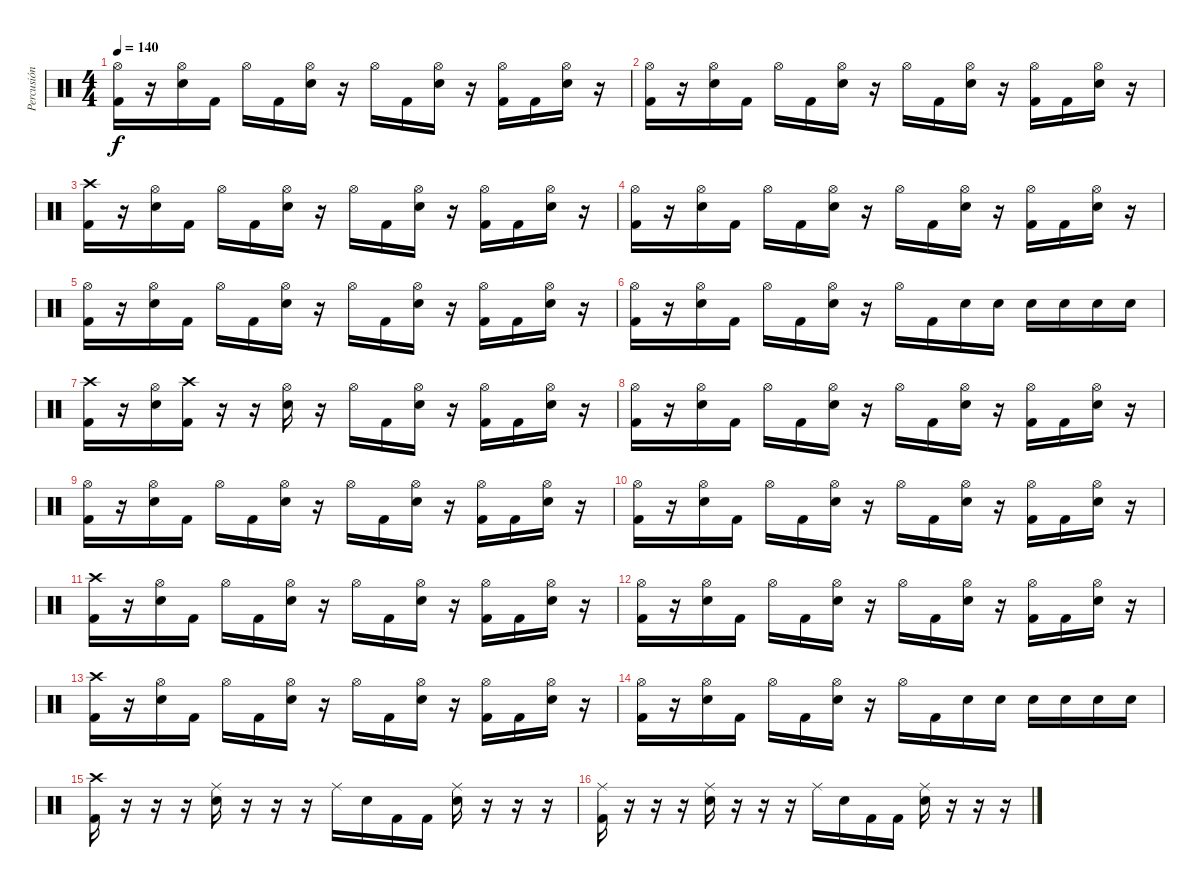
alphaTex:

\track ("Percusión" "Percusión") {instrument percussion}
\staff {score}
\articulation defaults
\ts (4 4)
\tempo 140
\clef neutral
\ks c
("Hi-Hat (open)" "Kick (hit) 2").16{dy f} r.16 ("Hi-Hat (open)" "Snare (hit) 2").16 "Kick (hit) 2".16 "Hi-Hat (open)".16 "Kick (hit) 2".16 ("Hi-Hat (open)" "Snare (hit) 2").16 r.16 "Hi-Hat (open)".16 "Kick (hit) 2".16 ("Hi-Hat (open)" "Snare (hit) 2").16 r.16 ("Hi-Hat (open)" "Kick (hit) 2").16 "Kick (hit) 2".16 ("Hi-Hat (open)" "Snare (hit) 2").16 r.16 |
("Hi-Hat (open)" "Kick (hit) 2").16 r.16 ("Hi-Hat (open)" "Snare (hit) 2").16 "Kick (hit) 2".16 "Hi-Hat (open)".16 "Kick (hit) 2".16 ("Hi-Hat (open)" "Snare (hit) 2").16 r.16 "Hi-Hat (open)".16 "Kick (hit) 2".16 ("Hi-Hat (open)" "Snare (hit) 2").16 r.16 ("Hi-Hat (open)" "Kick (hit) 2").16 "Kick (hit) 2".16 ("Hi-Hat (open)" "Snare (hit) 2").16 r.16 |
("Crash high (hit)" "Kick (hit) 2").16 r.16 ("Hi-Hat (open)" "Snare (hit) 2").16 "Kick (hit) 2".16 "Hi-Hat (open)".16 "Kick (hit) 2".16 ("Hi-Hat (open)" "Snare (hit) 2").16 r.16 "Hi-Hat (open)".16 "Kick (hit) 2".16 ("Hi-Hat (open)" "Snare (hit) 2").16 r.16 ("Hi-Hat (open)" "Kick (hit) 2").16 "Kick (hit) 2".16 ("Hi-Hat (open)" "Snare (hit) 2").16 r.16 |
("Hi-Hat (open)" "Kick (hit) 2").16 r.16 ("Hi-Hat (open)" "Snare (hit) 2").16 "Kick (hit) 2".16 "Hi-Hat (open)".16 "Kick (hit) 2".16 ("Hi-Hat (open)" "Snare (hit) 2").16 r.16 "Hi-Hat (open)".16 "Kick (hit) 2".16 ("Hi-Hat (open)" "Snare (hit) 2").16 r.16 ("Hi-Hat (open)" "Kick (hit) 2").16 "Kick (hit) 2".16 ("Hi-Hat (open)" "Snare (hit) 2").16 r.16 |
("Hi-Hat (open)" "Kick (hit) 2").16 r.16 ("Hi-Hat (open)" "Snare (hit) 2").16 "Kick (hit) 2".16 "Hi-Hat (open)".16 "Kick (hit) 2".16 ("Hi-Hat (open)" "Snare (hit) 2").16 r.16 "Hi-Hat (open)".16 "Kick (hit) 2".16 ("Hi-Hat (open)" "Snare (hit) 2").16 r.16 ("Hi-Hat (open)" "Kick (hit) 2").16 "Kick (hit) 2".16 ("Hi-Hat (open)" "Snare (hit) 2").16 r.16 |
("Hi-Hat (open)" "Kick (hit) 2").16 r.16 ("Hi-Hat (open)" "Snare (hit) 2").16 "Kick (hit) 2".16 "Hi-Hat (open)".16 "Kick (hit) 2".16 ("Hi-Hat (open)" "Snare (hit) 2").16 r.16 "Hi-Hat (open)".16 "Kick (hit) 2".16 "Snare (hit) 2".16 "Snare (hit) 2".16 "Snare (hit) 2".16 "Snare (hit) 2".16 "Snare (hit) 2".16 "Snare (hit) 2".16 |
("Crash high (hit)" "Kick (hit) 2").16 r.16 ("Hi-Hat (open)" "Snare (hit) 2").16 ("Crash high (hit)" "Kick (hit) 2").16 r.16 r.16 ("Hi-Hat (open)" "Snare (hit) 2").16 r.16 "Hi-Hat (open)".16 "Kick (hit) 2".16 ("Hi-Hat (open)" "Snare (hit) 2").16 r.16 ("Hi-Hat (open)" "Kick (hit) 2").16 "Kick (hit) 2".16 ("Hi-Hat (open)" "Snare (hit) 2").16 r.16 |
("Hi-Hat (open)" "Kick (hit) 2").16 r.16 ("Hi-Hat (open)" "Snare (hit) 2").16 "Kick (hit) 2".16 "Hi-Hat (open)".16 "Kick (hit) 2".16 ("Hi-Hat (open)" "Snare (hit) 2").16 r.16 "Hi-Hat (open)".16 "Kick (hit) 2".16 ("Hi-Hat (open)" "Snare (hit) 2").16 r.16 ("Hi-Hat (open)" "Kick (hit) 2").16 "Kick (hit) 2".16 ("Hi-Hat (open)" "Snare (hit) 2").16 r.16 |
("Hi-Hat (open)" "Kick (hit) 2").16 r.16 ("Hi-Hat (open)" "Snare (hit) 2").16 "Kick (hit) 2".16 "Hi-Hat (open)".16 "Kick (hit) 2".16 ("Hi-Hat (open)" "Snare (hit) 2").16 r.16 "Hi-Hat (open)".16 "Kick (hit) 2".16 ("Hi-Hat (open)" "Snare (hit) 2").16 r.16 ("Hi-Hat (open)" "Kick (hit) 2").16 "Kick (hit) 2".16 ("Hi-Hat (open)" "Snare (hit) 2").16 r.16 |
("Hi-Hat (open)" "Kick (hit) 2").16 r.16 ("Hi-Hat (open)" "Snare (hit) 2").16 "Kick (hit) 2".16 "Hi-Hat (open)".16 "Kick (hit) 2".16 ("Hi-Hat (open)" "Snare (hit) 2").16 r.16 "Hi-Hat (open)".16 "Kick (hit) 2".16 ("Hi-Hat (open)" "Snare (hit) 2").16 r.16 ("Hi-Hat (open)" "Kick (hit) 2").16 "Kick (hit) 2".16 ("Hi-Hat (open)" "Snare (hit) 2").16 r.16 |
("Crash high (hit)" "Kick (hit) 2").16 r.16 ("Hi-Hat (open)" "Snare (hit) 2").16 "Kick (hit) 2".16 "Hi-Hat (open)".16 "Kick (hit) 2".16 ("Hi-Hat (open)" "Snare (hit) 2").16 r.16 "Hi-Hat (open)".16 "Kick (hit) 2".16 ("Hi-Hat (open)" "Snare (hit) 2").16 r.16 ("Hi-Hat (open)" "Kick (hit) 2").16 "Kick (hit) 2".16 ("Hi-Hat (open)" "Snare (hit) 2").16 r.16 |
("Hi-Hat (open)" "Kick (hit) 2").16 r.16 ("Hi-Hat (open)" "Snare (hit) 2").16 "Kick (hit) 2".16 "Hi-Hat (open)".16 "Kick (hit) 2".16 ("Hi-Hat (open)" "Snare (hit) 2").16 r.16 "Hi-Hat (open)".16 "Kick (hit) 2".16 ("Hi-Hat (open)" "Snare (hit) 2").16 r.16 ("Hi-Hat (open)" "Kick (hit) 2").16 "Kick (hit) 2".16 ("Hi-Hat (open)" "Snare (hit) 2").16 r.16 |
("Crash high (hit)" "Kick (hit) 2").16 r.16 ("Hi-Hat (open)" "Snare (hit) 2").16 "Kick (hit) 2".16 "Hi-Hat (open)".16 "Kick (hit) 2".16 ("Hi-Hat (open)" "Snare (hit) 2").16 r.16 "Hi-Hat (open)".16 "Kick (hit) 2".16 ("Hi-Hat (open)" "Snare (hit) 2").16 r.16 ("Hi-Hat (open)" "Kick (hit) 2").16 "Kick (hit) 2".16 ("Hi-Hat (open)" "Snare (hit) 2").16 r.16 |
("Hi-Hat (open)" "Kick (hit) 2").16 r.16 ("Hi-Hat (open)" "Snare (hit) 2").16 "Kick (hit) 2".16 "Hi-Hat (open)".16 "Kick (hit) 2".16 ("Hi-Hat (open)" "Snare (hit) 2").16 r.16 "Hi-Hat (open)".16 "Kick (hit) 2".16 "Snare (hit) 2".16 "Snare (hit) 2".16 "Snare (hit) 2".16 "Snare (hit) 2".16 "Snare (hit) 2".16 "Snare (hit) 2".16 |
("Crash high (hit)" "Kick (hit) 2").16 r.16 r.16 r.16 ("Ride (middle)" "Snare (hit) 2").16 r.16 r.16 r.16 "Ride (middle)".16 "Snare (hit) 2".16 "Kick (hit) 2".16 "Kick (hit) 2".16 ("Ride (middle)" "Snare (hit) 2").16 r.16 r.16 r.16 |
("Ride (middle)" "Kick (hit) 2").16 r.16 r.16 r.16 ("Ride (middle)" "Snare (hit) 2").16 r.16 r.16 r.16 "Ride (middle)".16 "Snare (hit) 2".16 "Kick (hit) 2".16 "Kick (hit) 2".16 ("Ride (middle)" "Snare (hit) 2").16 r.16 r.16 r.16
